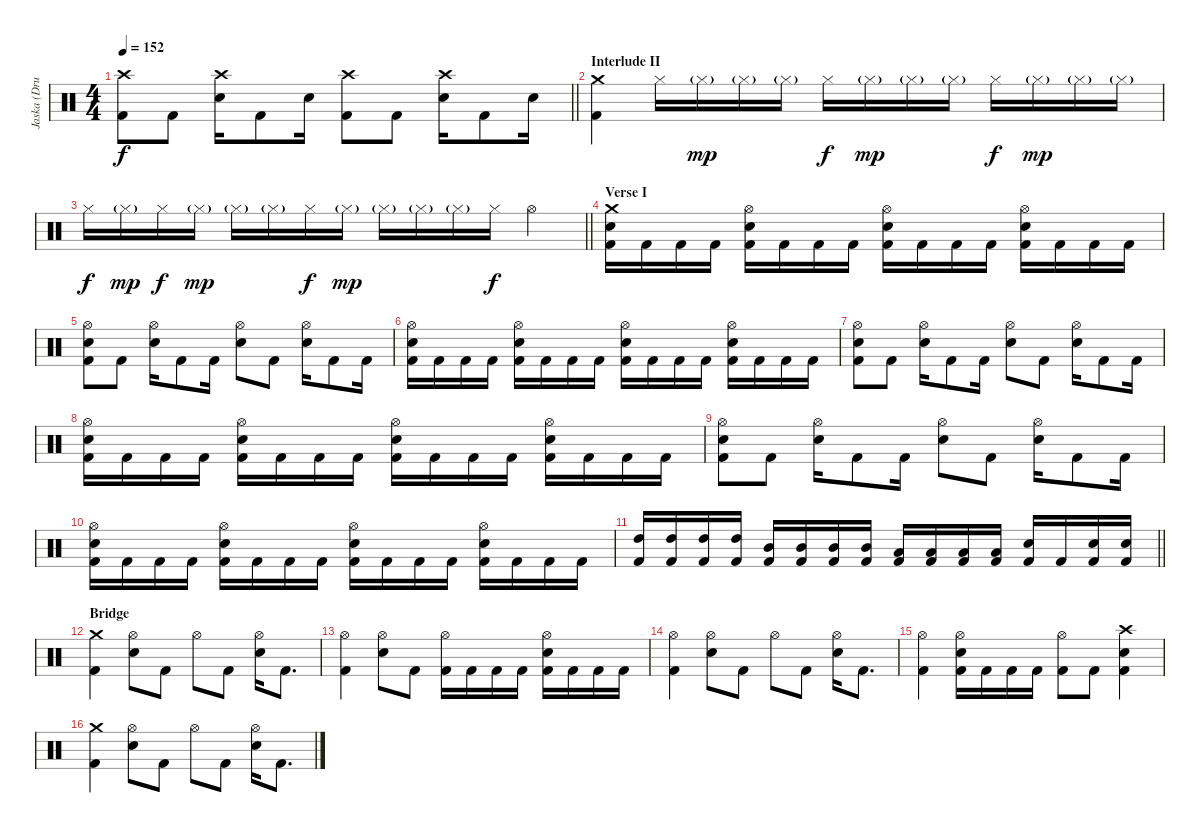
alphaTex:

\track ("Jaska (Drums)" "Jaska (Dru") {instrument percussion}
\staff {score}
\articulation defaults
\ts (4 4)
\tempo 152
\clef neutral
\barLineRight lightlight
\ks c
("Crash high (hit)" "Kick (hit) 2").8{dy f} "Kick (hit) 2".8 ("Crash high (hit)" "Electric Snare (hit)").16 "Kick (hit) 2".8 "Electric Snare (hit)".16 ("Crash high (hit)" "Kick (hit) 2").8 "Kick (hit) 2".8 ("Crash high (hit)" "Electric Snare (hit)").16 "Kick (hit) 2".8 "Electric Snare (hit)".16 |
\section ("" "Interlude II")
("Crash medium (hit)" "Kick (hit) 2").4 "Hi-Hat (closed)".16 "Hi-Hat (closed)"{g}.16{dy mp} "Hi-Hat (closed)"{g}.16 "Hi-Hat (closed)"{g}.16 "Hi-Hat (closed)".16{dy f} "Hi-Hat (closed)"{g}.16{dy mp} "Hi-Hat (closed)"{g}.16 "Hi-Hat (closed)"{g}.16 "Hi-Hat (closed)".16{dy f} "Hi-Hat (closed)"{g}.16{dy mp} "Hi-Hat (closed)"{g}.16 "Hi-Hat (closed)"{g}.16 |
\barLineRight lightlight "Hi-Hat (closed)".16{dy f} "Hi-Hat (closed)"{g}.16{dy mp} "Hi-Hat (closed)".16{dy f} "Hi-Hat (closed)"{g}.16{dy mp} "Hi-Hat (closed)"{g}.16 "Hi-Hat (closed)"{g}.16 "Hi-Hat (closed)".16{dy f} "Hi-Hat (closed)"{g}.16{dy mp} "Hi-Hat (closed)"{g}.16 "Hi-Hat (closed)"{g}.16 "Hi-Hat (closed)"{g}.16 "Hi-Hat (closed)".16{dy f} "Hi-Hat (open)".4
|
\section ("" "Verse I")
("Crash medium (hit)" "Electric Snare (hit)" "Kick (hit) 2").16 "Kick (hit) 2".16 "Kick (hit) 2".16 "Kick (hit) 2".16 ("Hi-Hat (open)" "Electric Snare (hit)" "Kick (hit) 2").16 "Kick (hit) 2".16 "Kick (hit) 2".16 "Kick (hit) 2".16 ("Hi-Hat (open)" "Electric Snare (hit)" "Kick (hit) 2").16 "Kick (hit) 2".16 "Kick (hit) 2".16 "Kick (hit) 2".16 ("Hi-Hat (open)" "Electric Snare (hit)" "Kick (hit) 2").16 "Kick (hit) 2".16 "Kick (hit) 2".16 "Kick (hit) 2".16 |
("Hi-Hat (open)" "Electric Snare (hit)" "Kick (hit) 2").8 "Kick (hit) 2".8 ("Hi-Hat (open)" "Electric Snare (hit)").16 "Kick (hit) 2".8 "Kick (hit) 2".16 ("Hi-Hat (open)" "Electric Snare (hit)").8 "Kick (hit) 2".8 ("Hi-Hat (open)" "Electric Snare (hit)").16 "Kick (hit) 2".8 "Kick (hit) 2".16 |
("Hi-Hat (open)" "Electric Snare (hit)" "Kick (hit) 2").16 "Kick (hit) 2".16 "Kick (hit) 2".16 "Kick (hit) 2".16 ("Hi-Hat (open)" "Electric Snare (hit)" "Kick (hit) 2").16 "Kick (hit) 2".16 "Kick (hit) 2".16 "Kick (hit) 2".16 ("Hi-Hat (open)" "Electric Snare (hit)" "Kick (hit) 2").16 "Kick (hit) 2".16 "Kick (hit) 2".16 "Kick (hit) 2".16 ("Hi-Hat (open)" "Electric Snare (hit)" "Kick (hit) 2").16 "Kick (hit) 2".16 "Kick (hit) 2".16 "Kick (hit) 2".16 |
("Hi-Hat (open)" "Electric Snare (hit)" "Kick (hit) 2").8 "Kick (hit) 2".8 ("Hi-Hat (open)" "Electric Snare (hit)").16 "Kick (hit) 2".8 "Kick (hit) 2".16 ("Hi-Hat (open)" "Electric Snare (hit)").8 "Kick (hit) 2".8 ("Hi-Hat (open)" "Electric Snare (hit)").16 "Kick (hit) 2".8 "Kick (hit) 2".16 |
("Hi-Hat (open)" "Electric Snare (hit)" "Kick (hit) 2").16 "Kick (hit) 2".16 "Kick (hit) 2".16 "Kick (hit) 2".16 ("Hi-Hat (open)" "Electric Snare (hit)" "Kick (hit) 2").16 "Kick (hit) 2".16 "Kick (hit) 2".16 "Kick (hit) 2".16 ("Hi-Hat (open)" "Electric Snare (hit)" "Kick (hit) 2").16 "Kick (hit) 2".16 "Kick (hit) 2".16 "Kick (hit) 2".16 ("Hi-Hat (open)" "Electric Snare (hit)" "Kick (hit) 2").16 "Kick (hit) 2".16 "Kick (hit) 2".16 "Kick (hit) 2".16 |
("Hi-Hat (open)" "Electric Snare (hit)" "Kick (hit) 2").8 "Kick (hit) 2".8 ("Hi-Hat (open)" "Electric Snare (hit)").16 "Kick (hit) 2".8 "Kick (hit) 2".16 ("Hi-Hat (open)" "Electric Snare (hit)").8 "Kick (hit) 2".8 ("Hi-Hat (open)" "Electric Snare (hit)").16 "Kick (hit) 2".8 "Kick (hit) 2".16 |
("Hi-Hat (open)" "Electric Snare (hit)" "Kick (hit) 2").16 "Kick (hit) 2".16 "Kick (hit) 2".16 "Kick (hit) 2".16 ("Hi-Hat (open)" "Electric Snare (hit)" "Kick (hit) 2").16 "Kick (hit) 2".16 "Kick (hit) 2".16 "Kick (hit) 2".16 ("Hi-Hat (open)" "Electric Snare (hit)" "Kick (hit) 2").16 "Kick (hit) 2".16 "Kick (hit) 2".16 "Kick (hit) 2".16 ("Hi-Hat (open)" "Electric Snare (hit)" "Kick (hit) 2").16 "Kick (hit) 2".16 "Kick (hit) 2".16 "Kick (hit) 2".16 |
\barLineRight lightlight
("High Tom (hit)" "Kick (hit) 2").16 ("High Tom (hit)" "Kick (hit) 2").16 ("High Tom (hit)" "Kick (hit) 2").16 ("High Tom (hit)" "Kick (hit) 2").16 ("Mid Tom (hit)" "Kick (hit) 2").16 ("Mid Tom (hit)" "Kick (hit) 2").16 ("Mid Tom (hit)" "Kick (hit) 2").16 ("Mid Tom (hit)" "Kick (hit) 2").16 ("Low Tom (hit)" "Kick (hit) 2").16 ("Low Tom (hit)" "Kick (hit) 2").16 ("Low Tom (hit)" "Kick (hit) 2").16 ("Low Tom (hit)" "Kick (hit) 2").16 ("Electric Snare (hit)" "Kick (hit) 2").16 "Kick (hit) 2".16 ("Electric Snare (hit)" "Kick (hit) 2").16 ("Electric Snare (hit)" "Kick (hit) 2").16 |
\section ("" "Bridge")
("Crash medium (hit)" "Kick (hit) 2").4 ("Hi-Hat (open)" "Electric Snare (hit)").8 "Kick (hit) 2".8 "Hi-Hat (open)".8 "Kick (hit) 2".8 ("Hi-Hat (open)" "Electric Snare (hit)").16 "Kick (hit) 2".8{d} |
("Hi-Hat (open)" "Kick (hit) 2").4 ("Hi-Hat (open)" "Electric Snare (hit)").8 "Kick (hit) 2".8 ("Hi-Hat (open)" "Kick (hit) 2").16 "Kick (hit) 2".16 "Kick (hit) 2".16 "Kick (hit) 2".16 ("Hi-Hat (open)" "Electric Snare (hit)" "Kick (hit) 2").16 "Kick (hit) 2".16 "Kick (hit) 2".16 "Kick (hit) 2".16 |
("Hi-Hat (open)" "Kick (hit) 2").4 ("Hi-Hat (open)" "Electric Snare (hit)").8 "Kick (hit) 2".8 "Hi-Hat (open)".8 "Kick (hit) 2".8 ("Hi-Hat (open)" "Electric Snare (hit)").16 "Kick (hit) 2".8{d} |
("Hi-Hat (open)" "Kick (hit) 2").4 ("Hi-Hat (open)" "Electric Snare (hit)" "Kick (hit) 2").16 "Kick (hit) 2".16 "Kick (hit) 2".16 "Kick (hit) 2".16 ("Hi-Hat (open)" "Kick (hit) 2").8 "Kick (hit) 2".8 ("Crash high (hit)" "Electric Snare (hit)" "Kick (hit) 2").4 |
("Crash medium (hit)" "Kick (hit) 2").4 ("Hi-Hat (open)" "Electric Snare (hit)").8 "Kick (hit) 2".8 "Hi-Hat (open)".8 "Kick (hit) 2".8 ("Hi-Hat (open)" "Electric Snare (hit)").16 "Kick (hit) 2".8{d}
